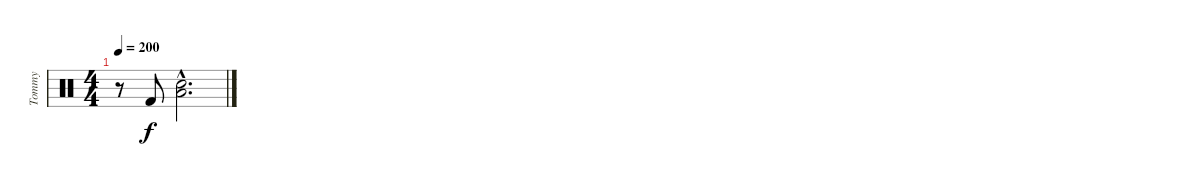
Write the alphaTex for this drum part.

\track ("Tommy" "Tommy") {instrument percussion}
\staff {score}
\articulation defaults
\ts (4 4)
\tempo 200
\clef neutral
\ks c
r.8{dy f} "Kick (hit) 2".8 ("Low Floor Tom (hit)"{hac} "Electric Snare (hit)"{hac}).2{d}
